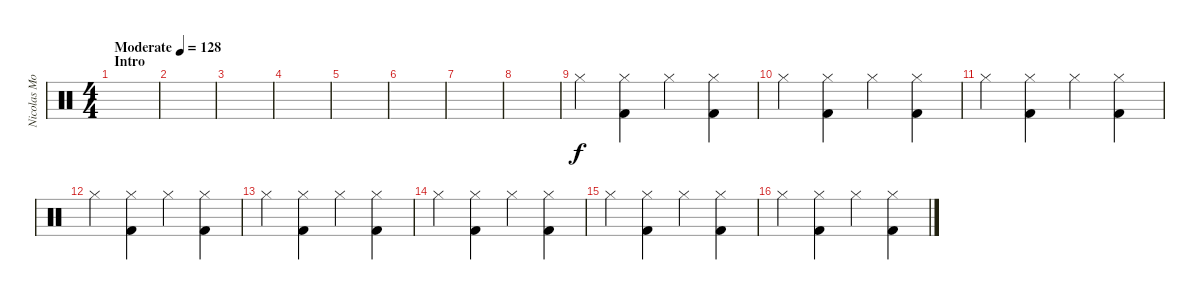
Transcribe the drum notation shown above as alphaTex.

\track ("Nicolas Mosquera" "Nicolas Mo") {mute instrument percussion}
\staff {score}
\articulation defaults
\ts (4 4)
\section ("" "Intro")
\tempo (128 "Moderate")
\clef neutral
\ks c
|
|
|
|
|
|
|
|
"Hi-Hat (closed)".4 ("Hi-Hat (closed)" "Kick (hit) 2").4 "Hi-Hat (closed)".4 ("Hi-Hat (closed)" "Kick (hit) 2").4 |
"Hi-Hat (closed)".4 ("Hi-Hat (closed)" "Kick (hit) 2").4 "Hi-Hat (closed)".4 ("Hi-Hat (closed)" "Kick (hit) 2").4 |
"Hi-Hat (closed)".4 ("Hi-Hat (closed)" "Kick (hit) 2").4 "Hi-Hat (closed)".4 ("Hi-Hat (closed)" "Kick (hit) 2").4 |
"Hi-Hat (closed)".4 ("Hi-Hat (closed)" "Kick (hit) 2").4 "Hi-Hat (closed)".4 ("Hi-Hat (closed)" "Kick (hit) 2").4 |
"Hi-Hat (closed)".4 ("Hi-Hat (closed)" "Kick (hit) 2").4 "Hi-Hat (closed)".4 ("Hi-Hat (closed)" "Kick (hit) 2").4 |
"Hi-Hat (closed)".4 ("Hi-Hat (closed)" "Kick (hit) 2").4 "Hi-Hat (closed)".4 ("Hi-Hat (closed)" "Kick (hit) 2").4 |
"Hi-Hat (closed)".4 ("Hi-Hat (closed)" "Kick (hit) 2").4 "Hi-Hat (closed)".4 ("Hi-Hat (closed)" "Kick (hit) 2").4 |
"Hi-Hat (closed)".4 ("Hi-Hat (closed)" "Kick (hit) 2").4 "Hi-Hat (closed)".4 ("Hi-Hat (closed)" "Kick (hit) 2").4
